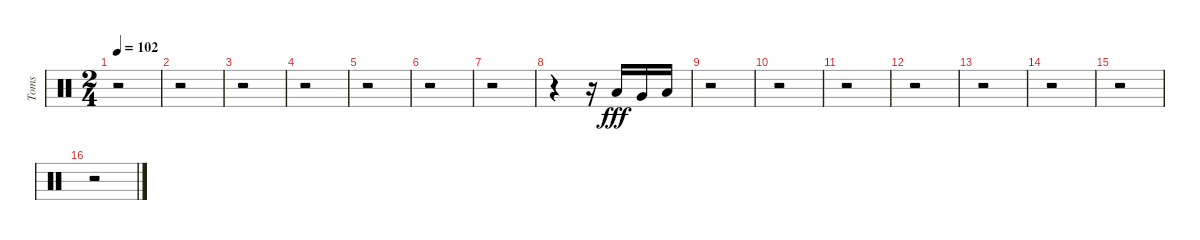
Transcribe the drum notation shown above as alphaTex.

\track ("Toms" "Toms") {instrument percussion}
\staff {score}
\articulation defaults
\ts (2 4)
\tempo 102
\clef neutral
\ks c
r.2{dy fff} |
r.2 |
r.2 |
r.2 |
r.2 |
r.2 |
r.2 |
r.4 r.16 "Low Tom (hit)".16 "Very Low Tom (hit)".16 "Low Floor Tom (hit)".16 |
r.2 |
r.2 |
r.2 |
r.2 |
r.2 |
r.2 |
r.2 |
r.2
